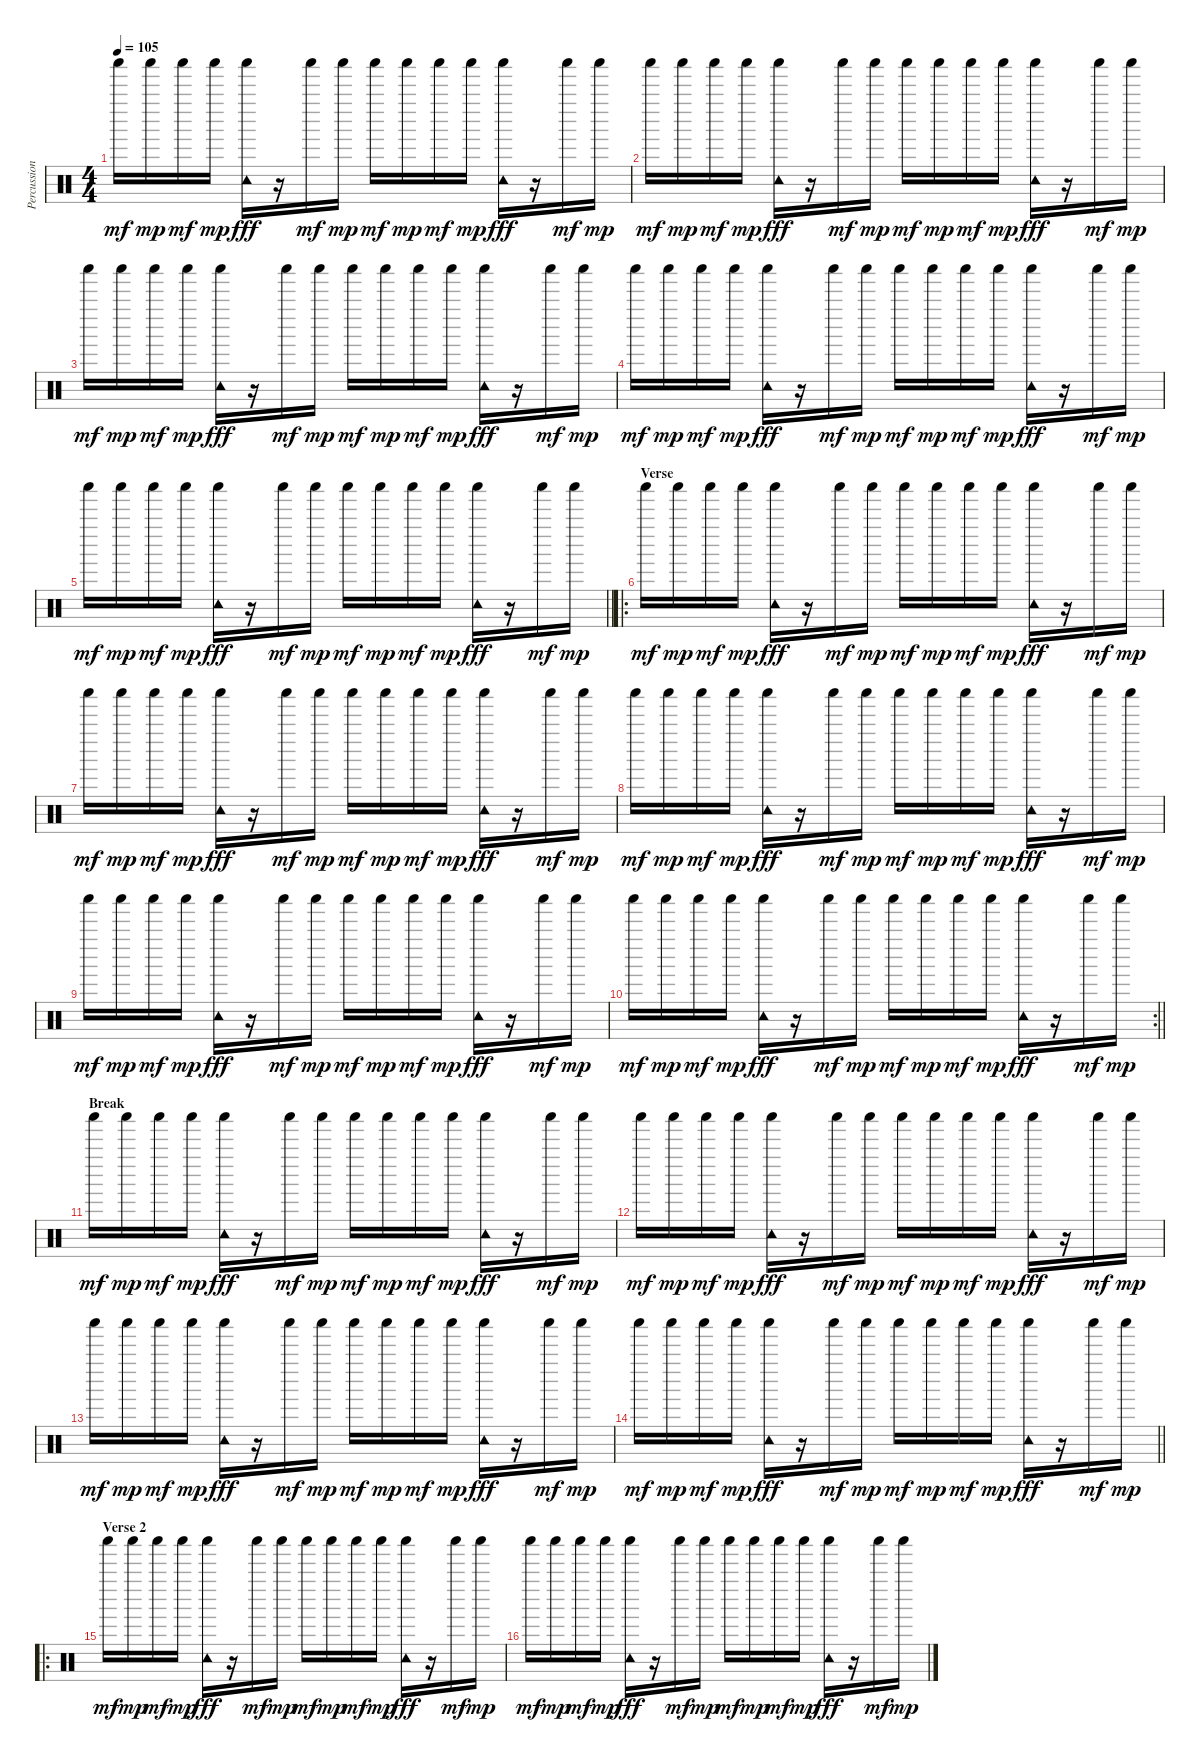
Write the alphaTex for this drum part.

\track ("Percussion" "Percussion") {instrument percussion}
\staff {score}
\articulation defaults
\ts (4 4)
\tempo 105
\clef neutral
\ks c "Shaker (hit)".16{dy mf} "Shaker (hit)".16{dy mp} "Shaker (hit)".16{dy mf} "Shaker (hit)".16{dy mp}
("Shaker (hit)" "Tambourine (hit)").16{dy fff} r.16 "Shaker (hit)".16{dy mf} "Shaker (hit)".16{dy mp} "Shaker (hit)".16{dy mf} "Shaker (hit)".16{dy mp} "Shaker (hit)".16{dy mf} "Shaker (hit)".16{dy mp} ("Shaker (hit)" "Tambourine (hit)").16{dy fff} r.16 "Shaker (hit)".16{dy mf} "Shaker (hit)".16{dy mp} |
"Shaker (hit)".16{dy mf} "Shaker (hit)".16{dy mp} "Shaker (hit)".16{dy mf} "Shaker (hit)".16{dy mp} ("Shaker (hit)" "Tambourine (hit)").16{dy fff} r.16 "Shaker (hit)".16{dy mf} "Shaker (hit)".16{dy mp} "Shaker (hit)".16{dy mf} "Shaker (hit)".16{dy mp} "Shaker (hit)".16{dy mf} "Shaker (hit)".16{dy mp} ("Shaker (hit)" "Tambourine (hit)").16{dy fff} r.16 "Shaker (hit)".16{dy mf} "Shaker (hit)".16{dy mp} |
"Shaker (hit)".16{dy mf} "Shaker (hit)".16{dy mp} "Shaker (hit)".16{dy mf} "Shaker (hit)".16{dy mp} ("Shaker (hit)" "Tambourine (hit)").16{dy fff} r.16 "Shaker (hit)".16{dy mf} "Shaker (hit)".16{dy mp} "Shaker (hit)".16{dy mf} "Shaker (hit)".16{dy mp} "Shaker (hit)".16{dy mf} "Shaker (hit)".16{dy mp} ("Shaker (hit)" "Tambourine (hit)").16{dy fff} r.16 "Shaker (hit)".16{dy mf} "Shaker (hit)".16{dy mp} |
"Shaker (hit)".16{dy mf} "Shaker (hit)".16{dy mp} "Shaker (hit)".16{dy mf} "Shaker (hit)".16{dy mp} ("Shaker (hit)" "Tambourine (hit)").16{dy fff} r.16 "Shaker (hit)".16{dy mf} "Shaker (hit)".16{dy mp} "Shaker (hit)".16{dy mf} "Shaker (hit)".16{dy mp} "Shaker (hit)".16{dy mf} "Shaker (hit)".16{dy mp} ("Shaker (hit)" "Tambourine (hit)").16{dy fff} r.16 "Shaker (hit)".16{dy mf} "Shaker (hit)".16{dy mp} |
\barLineRight lightlight "Shaker (hit)".16{dy mf} "Shaker (hit)".16{dy mp} "Shaker (hit)".16{dy mf} "Shaker (hit)".16{dy mp}
("Shaker (hit)" "Tambourine (hit)").16{dy fff} r.16 "Shaker (hit)".16{dy mf} "Shaker (hit)".16{dy mp} "Shaker (hit)".16{dy mf} "Shaker (hit)".16{dy mp} "Shaker (hit)".16{dy mf} "Shaker (hit)".16{dy mp} ("Shaker (hit)" "Tambourine (hit)").16{dy fff} r.16 "Shaker (hit)".16{dy mf} "Shaker (hit)".16{dy mp} |
\ro
\section ("" "Verse")
"Shaker (hit)".16{dy mf} "Shaker (hit)".16{dy mp} "Shaker (hit)".16{dy mf} "Shaker (hit)".16{dy mp} ("Shaker (hit)" "Tambourine (hit)").16{dy fff} r.16 "Shaker (hit)".16{dy mf} "Shaker (hit)".16{dy mp} "Shaker (hit)".16{dy mf} "Shaker (hit)".16{dy mp} "Shaker (hit)".16{dy mf} "Shaker (hit)".16{dy mp} ("Shaker (hit)" "Tambourine (hit)").16{dy fff} r.16 "Shaker (hit)".16{dy mf} "Shaker (hit)".16{dy mp} |
"Shaker (hit)".16{dy mf} "Shaker (hit)".16{dy mp} "Shaker (hit)".16{dy mf} "Shaker (hit)".16{dy mp} ("Shaker (hit)" "Tambourine (hit)").16{dy fff} r.16 "Shaker (hit)".16{dy mf} "Shaker (hit)".16{dy mp} "Shaker (hit)".16{dy mf} "Shaker (hit)".16{dy mp} "Shaker (hit)".16{dy mf} "Shaker (hit)".16{dy mp} ("Shaker (hit)" "Tambourine (hit)").16{dy fff} r.16 "Shaker (hit)".16{dy mf} "Shaker (hit)".16{dy mp} |
"Shaker (hit)".16{dy mf} "Shaker (hit)".16{dy mp} "Shaker (hit)".16{dy mf} "Shaker (hit)".16{dy mp} ("Shaker (hit)" "Tambourine (hit)").16{dy fff} r.16 "Shaker (hit)".16{dy mf} "Shaker (hit)".16{dy mp} "Shaker (hit)".16{dy mf} "Shaker (hit)".16{dy mp} "Shaker (hit)".16{dy mf} "Shaker (hit)".16{dy mp} ("Shaker (hit)" "Tambourine (hit)").16{dy fff} r.16 "Shaker (hit)".16{dy mf} "Shaker (hit)".16{dy mp} |
"Shaker (hit)".16{dy mf} "Shaker (hit)".16{dy mp} "Shaker (hit)".16{dy mf} "Shaker (hit)".16{dy mp} ("Shaker (hit)" "Tambourine (hit)").16{dy fff} r.16 "Shaker (hit)".16{dy mf} "Shaker (hit)".16{dy mp} "Shaker (hit)".16{dy mf} "Shaker (hit)".16{dy mp} "Shaker (hit)".16{dy mf} "Shaker (hit)".16{dy mp} ("Shaker (hit)" "Tambourine (hit)").16{dy fff} r.16 "Shaker (hit)".16{dy mf} "Shaker (hit)".16{dy mp} |
\rc 2
\barLineRight lightlight "Shaker (hit)".16{dy mf} "Shaker (hit)".16{dy mp} "Shaker (hit)".16{dy mf} "Shaker (hit)".16{dy mp}
("Shaker (hit)" "Tambourine (hit)").16{dy fff} r.16 "Shaker (hit)".16{dy mf} "Shaker (hit)".16{dy mp} "Shaker (hit)".16{dy mf} "Shaker (hit)".16{dy mp} "Shaker (hit)".16{dy mf} "Shaker (hit)".16{dy mp} ("Shaker (hit)" "Tambourine (hit)").16{dy fff} r.16 "Shaker (hit)".16{dy mf} "Shaker (hit)".16{dy mp} |
\section ("" "Break")
"Shaker (hit)".16{dy mf} "Shaker (hit)".16{dy mp} "Shaker (hit)".16{dy mf} "Shaker (hit)".16{dy mp} ("Shaker (hit)" "Tambourine (hit)").16{dy fff} r.16 "Shaker (hit)".16{dy mf} "Shaker (hit)".16{dy mp} "Shaker (hit)".16{dy mf} "Shaker (hit)".16{dy mp} "Shaker (hit)".16{dy mf} "Shaker (hit)".16{dy mp} ("Shaker (hit)" "Tambourine (hit)").16{dy fff} r.16 "Shaker (hit)".16{dy mf} "Shaker (hit)".16{dy mp} |
"Shaker (hit)".16{dy mf} "Shaker (hit)".16{dy mp} "Shaker (hit)".16{dy mf} "Shaker (hit)".16{dy mp} ("Shaker (hit)" "Tambourine (hit)").16{dy fff} r.16 "Shaker (hit)".16{dy mf} "Shaker (hit)".16{dy mp} "Shaker (hit)".16{dy mf} "Shaker (hit)".16{dy mp} "Shaker (hit)".16{dy mf} "Shaker (hit)".16{dy mp} ("Shaker (hit)" "Tambourine (hit)").16{dy fff} r.16 "Shaker (hit)".16{dy mf} "Shaker (hit)".16{dy mp} |
"Shaker (hit)".16{dy mf} "Shaker (hit)".16{dy mp} "Shaker (hit)".16{dy mf} "Shaker (hit)".16{dy mp} ("Shaker (hit)" "Tambourine (hit)").16{dy fff} r.16 "Shaker (hit)".16{dy mf} "Shaker (hit)".16{dy mp} "Shaker (hit)".16{dy mf} "Shaker (hit)".16{dy mp} "Shaker (hit)".16{dy mf} "Shaker (hit)".16{dy mp} ("Shaker (hit)" "Tambourine (hit)").16{dy fff} r.16 "Shaker (hit)".16{dy mf} "Shaker (hit)".16{dy mp} |
\barLineRight lightlight "Shaker (hit)".16{dy mf} "Shaker (hit)".16{dy mp} "Shaker (hit)".16{dy mf} "Shaker (hit)".16{dy mp}
("Shaker (hit)" "Tambourine (hit)").16{dy fff} r.16 "Shaker (hit)".16{dy mf} "Shaker (hit)".16{dy mp} "Shaker (hit)".16{dy mf} "Shaker (hit)".16{dy mp} "Shaker (hit)".16{dy mf} "Shaker (hit)".16{dy mp} ("Shaker (hit)" "Tambourine (hit)").16{dy fff} r.16 "Shaker (hit)".16{dy mf} "Shaker (hit)".16{dy mp} |
\ro
\section ("" "Verse 2")
"Shaker (hit)".16{dy mf} "Shaker (hit)".16{dy mp} "Shaker (hit)".16{dy mf} "Shaker (hit)".16{dy mp} ("Shaker (hit)" "Tambourine (hit)").16{dy fff} r.16 "Shaker (hit)".16{dy mf} "Shaker (hit)".16{dy mp} "Shaker (hit)".16{dy mf} "Shaker (hit)".16{dy mp} "Shaker (hit)".16{dy mf} "Shaker (hit)".16{dy mp} ("Shaker (hit)" "Tambourine (hit)").16{dy fff} r.16 "Shaker (hit)".16{dy mf} "Shaker (hit)".16{dy mp} |
"Shaker (hit)".16{dy mf} "Shaker (hit)".16{dy mp} "Shaker (hit)".16{dy mf} "Shaker (hit)".16{dy mp} ("Shaker (hit)" "Tambourine (hit)").16{dy fff} r.16 "Shaker (hit)".16{dy mf} "Shaker (hit)".16{dy mp} "Shaker (hit)".16{dy mf} "Shaker (hit)".16{dy mp} "Shaker (hit)".16{dy mf} "Shaker (hit)".16{dy mp} ("Shaker (hit)" "Tambourine (hit)").16{dy fff} r.16 "Shaker (hit)".16{dy mf} "Shaker (hit)".16{dy mp}
